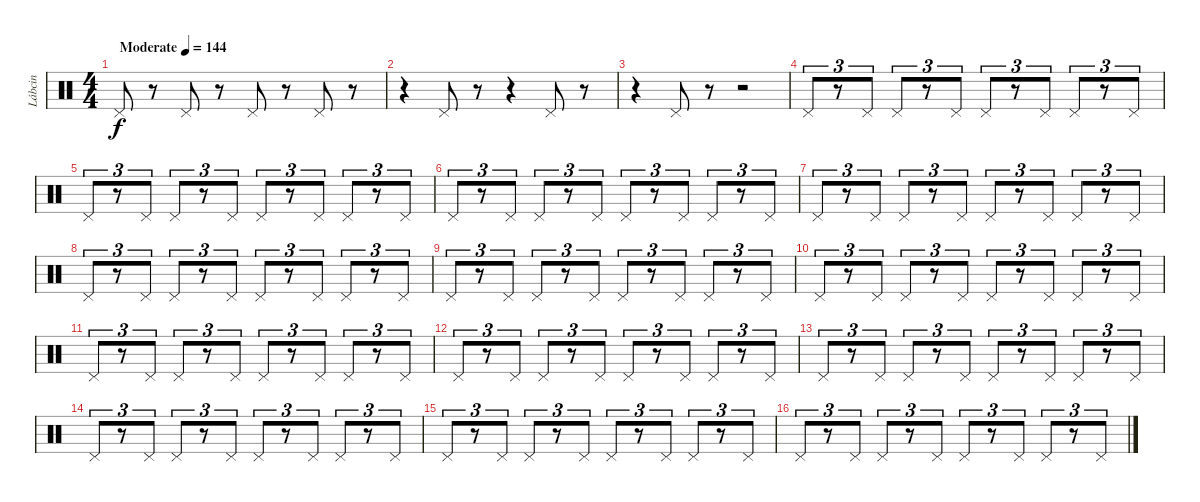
\track ("Lábcin" "Lábcin") {instrument percussion}
\staff {score}
\articulation defaults
\ts (4 4)
\tempo (144 "Moderate")
\clef neutral
\ks c "Pedal Hi-Hat (hit)".8{dy f}
r.8 "Pedal Hi-Hat (hit)".8 r.8 "Pedal Hi-Hat (hit)".8 r.8 "Pedal Hi-Hat (hit)".8 r.8 |
r.4 "Pedal Hi-Hat (hit)".8 r.8 r.4 "Pedal Hi-Hat (hit)".8 r.8 |
r.4 "Pedal Hi-Hat (hit)".8 r.8 r.2 |
"Pedal Hi-Hat (hit)".8{tu (3 2)} r.8{tu (3 2)} "Pedal Hi-Hat (hit)".8{tu (3 2)} "Pedal Hi-Hat (hit)".8{tu (3 2)} r.8{tu (3 2)} "Pedal Hi-Hat (hit)".8{tu (3 2)} "Pedal Hi-Hat (hit)".8{tu (3 2)} r.8{tu (3 2)} "Pedal Hi-Hat (hit)".8{tu (3 2)} "Pedal Hi-Hat (hit)".8{tu (3 2)} r.8{tu (3 2)} "Pedal Hi-Hat (hit)".8{tu (3 2)} |
"Pedal Hi-Hat (hit)".8{tu (3 2)} r.8{tu (3 2)} "Pedal Hi-Hat (hit)".8{tu (3 2)} "Pedal Hi-Hat (hit)".8{tu (3 2)} r.8{tu (3 2)} "Pedal Hi-Hat (hit)".8{tu (3 2)} "Pedal Hi-Hat (hit)".8{tu (3 2)} r.8{tu (3 2)} "Pedal Hi-Hat (hit)".8{tu (3 2)} "Pedal Hi-Hat (hit)".8{tu (3 2)} r.8{tu (3 2)} "Pedal Hi-Hat (hit)".8{tu (3 2)} |
"Pedal Hi-Hat (hit)".8{tu (3 2)} r.8{tu (3 2)} "Pedal Hi-Hat (hit)".8{tu (3 2)} "Pedal Hi-Hat (hit)".8{tu (3 2)} r.8{tu (3 2)} "Pedal Hi-Hat (hit)".8{tu (3 2)} "Pedal Hi-Hat (hit)".8{tu (3 2)} r.8{tu (3 2)} "Pedal Hi-Hat (hit)".8{tu (3 2)} "Pedal Hi-Hat (hit)".8{tu (3 2)} r.8{tu (3 2)} "Pedal Hi-Hat (hit)".8{tu (3 2)} |
"Pedal Hi-Hat (hit)".8{tu (3 2)} r.8{tu (3 2)} "Pedal Hi-Hat (hit)".8{tu (3 2)} "Pedal Hi-Hat (hit)".8{tu (3 2)} r.8{tu (3 2)} "Pedal Hi-Hat (hit)".8{tu (3 2)} "Pedal Hi-Hat (hit)".8{tu (3 2)} r.8{tu (3 2)} "Pedal Hi-Hat (hit)".8{tu (3 2)} "Pedal Hi-Hat (hit)".8{tu (3 2)} r.8{tu (3 2)} "Pedal Hi-Hat (hit)".8{tu (3 2)} |
"Pedal Hi-Hat (hit)".8{tu (3 2)} r.8{tu (3 2)} "Pedal Hi-Hat (hit)".8{tu (3 2)} "Pedal Hi-Hat (hit)".8{tu (3 2)} r.8{tu (3 2)} "Pedal Hi-Hat (hit)".8{tu (3 2)} "Pedal Hi-Hat (hit)".8{tu (3 2)} r.8{tu (3 2)} "Pedal Hi-Hat (hit)".8{tu (3 2)} "Pedal Hi-Hat (hit)".8{tu (3 2)} r.8{tu (3 2)} "Pedal Hi-Hat (hit)".8{tu (3 2)} |
"Pedal Hi-Hat (hit)".8{tu (3 2)} r.8{tu (3 2)} "Pedal Hi-Hat (hit)".8{tu (3 2)} "Pedal Hi-Hat (hit)".8{tu (3 2)} r.8{tu (3 2)} "Pedal Hi-Hat (hit)".8{tu (3 2)} "Pedal Hi-Hat (hit)".8{tu (3 2)} r.8{tu (3 2)} "Pedal Hi-Hat (hit)".8{tu (3 2)} "Pedal Hi-Hat (hit)".8{tu (3 2)} r.8{tu (3 2)} "Pedal Hi-Hat (hit)".8{tu (3 2)} |
"Pedal Hi-Hat (hit)".8{tu (3 2)} r.8{tu (3 2)} "Pedal Hi-Hat (hit)".8{tu (3 2)} "Pedal Hi-Hat (hit)".8{tu (3 2)} r.8{tu (3 2)} "Pedal Hi-Hat (hit)".8{tu (3 2)} "Pedal Hi-Hat (hit)".8{tu (3 2)} r.8{tu (3 2)} "Pedal Hi-Hat (hit)".8{tu (3 2)} "Pedal Hi-Hat (hit)".8{tu (3 2)} r.8{tu (3 2)} "Pedal Hi-Hat (hit)".8{tu (3 2)} |
"Pedal Hi-Hat (hit)".8{tu (3 2)} r.8{tu (3 2)} "Pedal Hi-Hat (hit)".8{tu (3 2)} "Pedal Hi-Hat (hit)".8{tu (3 2)} r.8{tu (3 2)} "Pedal Hi-Hat (hit)".8{tu (3 2)} "Pedal Hi-Hat (hit)".8{tu (3 2)} r.8{tu (3 2)} "Pedal Hi-Hat (hit)".8{tu (3 2)} "Pedal Hi-Hat (hit)".8{tu (3 2)} r.8{tu (3 2)} "Pedal Hi-Hat (hit)".8{tu (3 2)} |
"Pedal Hi-Hat (hit)".8{tu (3 2)} r.8{tu (3 2)} "Pedal Hi-Hat (hit)".8{tu (3 2)} "Pedal Hi-Hat (hit)".8{tu (3 2)} r.8{tu (3 2)} "Pedal Hi-Hat (hit)".8{tu (3 2)} "Pedal Hi-Hat (hit)".8{tu (3 2)} r.8{tu (3 2)} "Pedal Hi-Hat (hit)".8{tu (3 2)} "Pedal Hi-Hat (hit)".8{tu (3 2)} r.8{tu (3 2)} "Pedal Hi-Hat (hit)".8{tu (3 2)} |
"Pedal Hi-Hat (hit)".8{tu (3 2)} r.8{tu (3 2)} "Pedal Hi-Hat (hit)".8{tu (3 2)} "Pedal Hi-Hat (hit)".8{tu (3 2)} r.8{tu (3 2)} "Pedal Hi-Hat (hit)".8{tu (3 2)} "Pedal Hi-Hat (hit)".8{tu (3 2)} r.8{tu (3 2)} "Pedal Hi-Hat (hit)".8{tu (3 2)} "Pedal Hi-Hat (hit)".8{tu (3 2)} r.8{tu (3 2)} "Pedal Hi-Hat (hit)".8{tu (3 2)} |
"Pedal Hi-Hat (hit)".8{tu (3 2)} r.8{tu (3 2)} "Pedal Hi-Hat (hit)".8{tu (3 2)} "Pedal Hi-Hat (hit)".8{tu (3 2)} r.8{tu (3 2)} "Pedal Hi-Hat (hit)".8{tu (3 2)} "Pedal Hi-Hat (hit)".8{tu (3 2)} r.8{tu (3 2)} "Pedal Hi-Hat (hit)".8{tu (3 2)} "Pedal Hi-Hat (hit)".8{tu (3 2)} r.8{tu (3 2)} "Pedal Hi-Hat (hit)".8{tu (3 2)} |
"Pedal Hi-Hat (hit)".8{tu (3 2)} r.8{tu (3 2)} "Pedal Hi-Hat (hit)".8{tu (3 2)} "Pedal Hi-Hat (hit)".8{tu (3 2)} r.8{tu (3 2)} "Pedal Hi-Hat (hit)".8{tu (3 2)} "Pedal Hi-Hat (hit)".8{tu (3 2)} r.8{tu (3 2)} "Pedal Hi-Hat (hit)".8{tu (3 2)} "Pedal Hi-Hat (hit)".8{tu (3 2)} r.8{tu (3 2)} "Pedal Hi-Hat (hit)".8{tu (3 2)} |
"Pedal Hi-Hat (hit)".8{tu (3 2)} r.8{tu (3 2)} "Pedal Hi-Hat (hit)".8{tu (3 2)} "Pedal Hi-Hat (hit)".8{tu (3 2)} r.8{tu (3 2)} "Pedal Hi-Hat (hit)".8{tu (3 2)} "Pedal Hi-Hat (hit)".8{tu (3 2)} r.8{tu (3 2)} "Pedal Hi-Hat (hit)".8{tu (3 2)} "Pedal Hi-Hat (hit)".8{tu (3 2)} r.8{tu (3 2)} "Pedal Hi-Hat (hit)".8{tu (3 2)}
